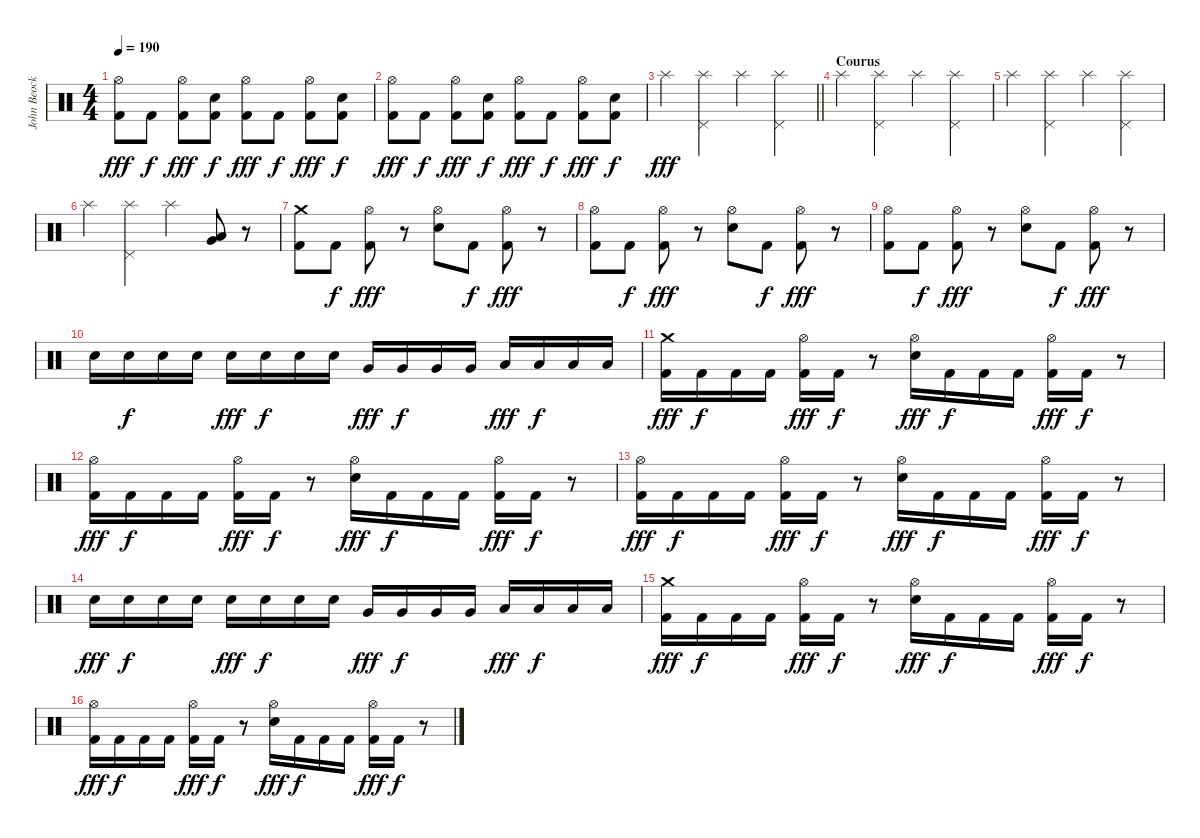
\track ("John Beocklin (Drums)" "John Beock") {instrument percussion}
\staff {score}
\articulation defaults
\ts (4 4)
\tempo 190
\clef neutral
\ks c
("Hi-Hat (open)" "Kick (hit) 2").8{dy fff} "Kick (hit) 2".8{dy f} ("Hi-Hat (open)" "Kick (hit) 2").8{dy fff} ("Snare (hit) 2" "Kick (hit) 2").8{dy f} ("Hi-Hat (open)" "Kick (hit) 2").8{dy fff} "Kick (hit) 2".8{dy f} ("Hi-Hat (open)" "Kick (hit) 2").8{dy fff} ("Snare (hit) 2" "Kick (hit) 2").8{dy f} |
("Hi-Hat (open)" "Kick (hit) 2").8{dy fff} "Kick (hit) 2".8{dy f} ("Hi-Hat (open)" "Kick (hit) 2").8{dy fff} ("Snare (hit) 2" "Kick (hit) 2").8{dy f} ("Hi-Hat (open)" "Kick (hit) 2").8{dy fff} "Kick (hit) 2".8{dy f} ("Hi-Hat (open)" "Kick (hit) 2").8{dy fff} ("Snare (hit) 2" "Kick (hit) 2").8{dy f} |
\barLineRight lightlight "Splash (hit)".4{dy fff}
("Splash (hit)" "Pedal Hi-Hat (hit)").4 "Splash (hit)".4 ("Splash (hit)" "Pedal Hi-Hat (hit)").4 |
\section ("" "Courus")
"Splash (hit)".4 ("Splash (hit)" "Pedal Hi-Hat (hit)").4 "Splash (hit)".4 ("Splash (hit)" "Pedal Hi-Hat (hit)").4 |
"Splash (hit)".4 ("Splash (hit)" "Pedal Hi-Hat (hit)").4 "Splash (hit)".4 ("Splash (hit)" "Pedal Hi-Hat (hit)").4 |
"Splash (hit)".4 ("Splash (hit)" "Pedal Hi-Hat (hit)").4 "Splash (hit)".4 ("Very Low Tom (hit)" "Low Floor Tom (hit)").8 r.8 |
("Crash medium (hit)" "Kick (hit) 2").8 "Kick (hit) 2".8{dy f} ("Hi-Hat (open)" "Kick (hit) 2").8{dy fff} r.8 ("Hi-Hat (open)" "Snare (hit) 2").8 "Kick (hit) 2".8{dy f} ("Hi-Hat (open)" "Kick (hit) 2").8{dy fff} r.8 |
("Hi-Hat (open)" "Kick (hit) 2").8 "Kick (hit) 2".8{dy f} ("Hi-Hat (open)" "Kick (hit) 2").8{dy fff} r.8 ("Hi-Hat (open)" "Snare (hit) 2").8 "Kick (hit) 2".8{dy f} ("Hi-Hat (open)" "Kick (hit) 2").8{dy fff} r.8 |
("Hi-Hat (open)" "Kick (hit) 2").8 "Kick (hit) 2".8{dy f} ("Hi-Hat (open)" "Kick (hit) 2").8{dy fff} r.8 ("Hi-Hat (open)" "Snare (hit) 2").8 "Kick (hit) 2".8{dy f} ("Hi-Hat (open)" "Kick (hit) 2").8{dy fff} r.8 |
"Snare (hit) 2".16 "Snare (hit) 2".16{dy f} "Snare (hit) 2".16 "Snare (hit) 2".16 "Snare (hit) 2".16{dy fff} "Snare (hit) 2".16{dy f} "Snare (hit) 2".16 "Snare (hit) 2".16 "Very Low Tom (hit)".16{dy fff} "Very Low Tom (hit)".16{dy f} "Very Low Tom (hit)".16 "Very Low Tom (hit)".16 "Low Floor Tom (hit)".16{dy fff} "Low Floor Tom (hit)".16{dy f} "Low Floor Tom (hit)".16 "Low Floor Tom (hit)".16 |
("Crash medium (hit)" "Kick (hit) 2").16{dy fff} "Kick (hit) 2".16{dy f} "Kick (hit) 2".16 "Kick (hit) 2".16 ("Hi-Hat (open)" "Kick (hit) 2").16{dy fff} "Kick (hit) 2".16{dy f} r.8 ("Hi-Hat (open)" "Snare (hit) 2").16{dy fff} "Kick (hit) 2".16{dy f} "Kick (hit) 2".16 "Kick (hit) 2".16 ("Hi-Hat (open)" "Kick (hit) 2").16{dy fff} "Kick (hit) 2".16{dy f} r.8 |
("Hi-Hat (open)" "Kick (hit) 2").16{dy fff} "Kick (hit) 2".16{dy f} "Kick (hit) 2".16 "Kick (hit) 2".16 ("Hi-Hat (open)" "Kick (hit) 2").16{dy fff} "Kick (hit) 2".16{dy f} r.8 ("Hi-Hat (open)" "Snare (hit) 2").16{dy fff} "Kick (hit) 2".16{dy f} "Kick (hit) 2".16 "Kick (hit) 2".16 ("Hi-Hat (open)" "Kick (hit) 2").16{dy fff} "Kick (hit) 2".16{dy f} r.8 |
("Hi-Hat (open)" "Kick (hit) 2").16{dy fff} "Kick (hit) 2".16{dy f} "Kick (hit) 2".16 "Kick (hit) 2".16 ("Hi-Hat (open)" "Kick (hit) 2").16{dy fff} "Kick (hit) 2".16{dy f} r.8 ("Hi-Hat (open)" "Snare (hit) 2").16{dy fff} "Kick (hit) 2".16{dy f} "Kick (hit) 2".16 "Kick (hit) 2".16 ("Hi-Hat (open)" "Kick (hit) 2").16{dy fff} "Kick (hit) 2".16{dy f} r.8 |
"Snare (hit) 2".16{dy fff} "Snare (hit) 2".16{dy f} "Snare (hit) 2".16 "Snare (hit) 2".16 "Snare (hit) 2".16{dy fff} "Snare (hit) 2".16{dy f} "Snare (hit) 2".16 "Snare (hit) 2".16 "Very Low Tom (hit)".16{dy fff} "Very Low Tom (hit)".16{dy f} "Very Low Tom (hit)".16 "Very Low Tom (hit)".16 "Low Floor Tom (hit)".16{dy fff} "Low Floor Tom (hit)".16{dy f} "Low Floor Tom (hit)".16 "Low Floor Tom (hit)".16 |
("Crash medium (hit)" "Kick (hit) 2").16{dy fff} "Kick (hit) 2".16{dy f} "Kick (hit) 2".16 "Kick (hit) 2".16 ("Hi-Hat (open)" "Kick (hit) 2").16{dy fff} "Kick (hit) 2".16{dy f} r.8 ("Hi-Hat (open)" "Snare (hit) 2").16{dy fff} "Kick (hit) 2".16{dy f} "Kick (hit) 2".16 "Kick (hit) 2".16 ("Hi-Hat (open)" "Kick (hit) 2").16{dy fff} "Kick (hit) 2".16{dy f} r.8 |
("Hi-Hat (open)" "Kick (hit) 2").16{dy fff} "Kick (hit) 2".16{dy f} "Kick (hit) 2".16 "Kick (hit) 2".16 ("Hi-Hat (open)" "Kick (hit) 2").16{dy fff} "Kick (hit) 2".16{dy f} r.8 ("Hi-Hat (open)" "Snare (hit) 2").16{dy fff} "Kick (hit) 2".16{dy f} "Kick (hit) 2".16 "Kick (hit) 2".16 ("Hi-Hat (open)" "Kick (hit) 2").16{dy fff} "Kick (hit) 2".16{dy f} r.8
